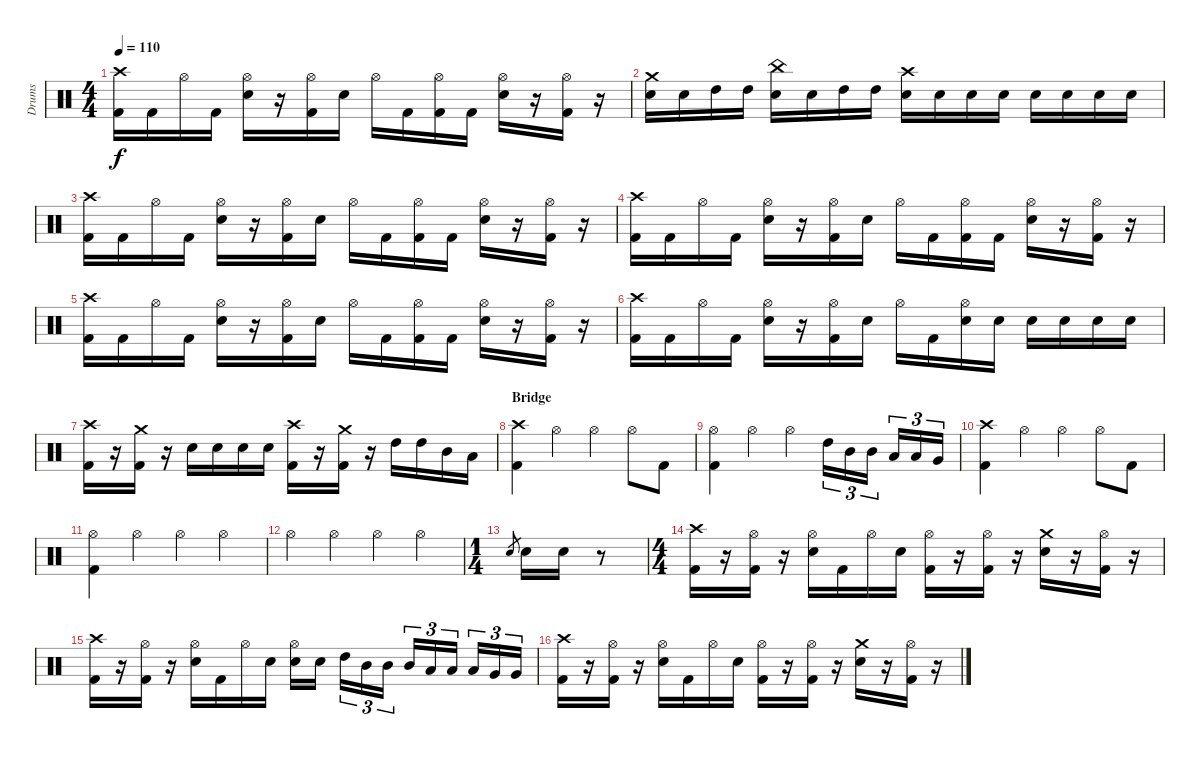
\track ("Drums" "Drums") {instrument percussion}
\staff {score}
\articulation defaults
\ts (4 4)
\tempo 110
\clef neutral
\ks c
("Crash high (hit)" "Kick (hit) 2").16{dy f} "Kick (hit) 2".16 "Hi-Hat (open)".16 "Kick (hit) 2".16 ("Hi-Hat (open)" "Electric Snare (hit)").16 r.16 ("Hi-Hat (open)" "Kick (hit) 2").16 "Electric Snare (hit)".16 "Hi-Hat (open)".16 "Kick (hit) 2".16 ("Hi-Hat (open)" "Kick (hit) 2").16 "Kick (hit) 2".16 ("Hi-Hat (open)" "Electric Snare (hit)").16 r.16 ("Hi-Hat (open)" "Kick (hit) 2").16 r.16 |
("Crash medium (hit)" "Electric Snare (hit)").16 "Electric Snare (hit)".16 "High Tom (hit)".16 "High Tom (hit)".16 ("China (hit)" "Electric Snare (hit)").16 "Electric Snare (hit)".16 "High Tom (hit)".16 "High Tom (hit)".16 ("Crash high (hit)" "Electric Snare (hit)").16 "Electric Snare (hit)".16 "Electric Snare (hit)".16 "Electric Snare (hit)".16 "Electric Snare (hit)".16 "Electric Snare (hit)".16 "Electric Snare (hit)".16 "Electric Snare (hit)".16 |
("Crash high (hit)" "Kick (hit) 2").16 "Kick (hit) 2".16 "Hi-Hat (open)".16 "Kick (hit) 2".16 ("Hi-Hat (open)" "Electric Snare (hit)").16 r.16 ("Hi-Hat (open)" "Kick (hit) 2").16 "Electric Snare (hit)".16 "Hi-Hat (open)".16 "Kick (hit) 2".16 ("Hi-Hat (open)" "Kick (hit) 2").16 "Kick (hit) 2".16 ("Hi-Hat (open)" "Electric Snare (hit)").16 r.16 ("Hi-Hat (open)" "Kick (hit) 2").16 r.16 |
("Crash high (hit)" "Kick (hit) 2").16 "Kick (hit) 2".16 "Hi-Hat (open)".16 "Kick (hit) 2".16 ("Hi-Hat (open)" "Electric Snare (hit)").16 r.16 ("Hi-Hat (open)" "Kick (hit) 2").16 "Electric Snare (hit)".16 "Hi-Hat (open)".16 "Kick (hit) 2".16 ("Hi-Hat (open)" "Kick (hit) 2").16 "Kick (hit) 2".16 ("Hi-Hat (open)" "Electric Snare (hit)").16 r.16 ("Hi-Hat (open)" "Kick (hit) 2").16 r.16 |
("Crash high (hit)" "Kick (hit) 2").16 "Kick (hit) 2".16 "Hi-Hat (open)".16 "Kick (hit) 2".16 ("Hi-Hat (open)" "Electric Snare (hit)").16 r.16 ("Hi-Hat (open)" "Kick (hit) 2").16 "Electric Snare (hit)".16 "Hi-Hat (open)".16 "Kick (hit) 2".16 ("Hi-Hat (open)" "Kick (hit) 2").16 "Kick (hit) 2".16 ("Hi-Hat (open)" "Electric Snare (hit)").16 r.16 ("Hi-Hat (open)" "Kick (hit) 2").16 r.16 |
("Crash high (hit)" "Kick (hit) 2").16 "Kick (hit) 2".16 "Hi-Hat (open)".16 "Kick (hit) 2".16 ("Hi-Hat (open)" "Electric Snare (hit)").16 r.16 ("Hi-Hat (open)" "Kick (hit) 2").16 "Electric Snare (hit)".16 "Hi-Hat (open)".16 "Kick (hit) 2".16 ("Hi-Hat (open)" "Electric Snare (hit)").16 "Electric Snare (hit)".16 "Electric Snare (hit)".16 "Electric Snare (hit)".16 "Electric Snare (hit)".16 "Electric Snare (hit)".16 |
("Crash high (hit)" "Kick (hit) 2").16 r.16 ("Crash medium (hit)" "Kick (hit) 2").16 r.16 "Electric Snare (hit)".16 "Electric Snare (hit)".16 "Electric Snare (hit)".16 "Electric Snare (hit)".16 ("Crash high (hit)" "Kick (hit) 2").16 r.16 ("Crash medium (hit)" "Kick (hit) 2").16 r.16 "High Tom (hit)".16 "High Tom (hit)".16 "Mid Tom (hit)".16 "Low Tom (hit)".16 |
\section ("" "Bridge")
("Crash high (hit)" "Kick (hit) 2").4 "Hi-Hat (open)".4 "Hi-Hat (open)".4 "Hi-Hat (open)".8 "Kick (hit) 2".8 |
("Hi-Hat (open)" "Kick (hit) 2").4 "Hi-Hat (open)".4 "Hi-Hat (open)".4 "High Tom (hit)".16{tu (3 2)} "Mid Tom (hit)".16{tu (3 2)} "Mid Tom (hit)".16{tu (3 2)} "Low Tom (hit)".16{tu (3 2)} "Low Tom (hit)".16{tu (3 2)} "Very Low Tom (hit)".16{tu (3 2)} |
("Crash high (hit)" "Kick (hit) 2").4 "Hi-Hat (open)".4 "Hi-Hat (open)".4 "Hi-Hat (open)".8 "Kick (hit) 2".8 |
("Hi-Hat (open)" "Kick (hit) 2").4 "Hi-Hat (open)".4 "Hi-Hat (open)".4 "Hi-Hat (open)".4 |
"Hi-Hat (open)".4 "Hi-Hat (open)".4 "Hi-Hat (open)".4 "Hi-Hat (open)".4 |
\ts (1 4)
"Electric Snare (hit)".8{gr} "Electric Snare (hit)".16 "Electric Snare (hit)".16 r.8 |
\ts (4 4)
("Crash high (hit)" "Kick (hit) 2").16 r.16 ("Hi-Hat (open)" "Kick (hit) 2").16 r.16 ("Hi-Hat (open)" "Electric Snare (hit)").16 "Kick (hit) 2".16 "Hi-Hat (open)".16 "Electric Snare (hit)".16 ("Hi-Hat (open)" "Kick (hit) 2").16 r.16 ("Hi-Hat (open)" "Kick (hit) 2").16 r.16 ("Crash medium (hit)" "Electric Snare (hit)").16 r.16 ("Hi-Hat (open)" "Kick (hit) 2").16 r.16 |
("Crash high (hit)" "Kick (hit) 2").16 r.16 ("Hi-Hat (open)" "Kick (hit) 2").16 r.16 ("Hi-Hat (open)" "Electric Snare (hit)").16 "Kick (hit) 2".16 "Hi-Hat (open)".16 "Electric Snare (hit)".16 ("Hi-Hat (open)" "Electric Snare (hit)").16 "Electric Snare (hit)".16 "High Tom (hit)".16{tu (3 2)} "Mid Tom (hit)".16{tu (3 2)} "Mid Tom (hit)".16{tu (3 2)} "Mid Tom (hit)".16{tu (3 2)} "Low Tom (hit)".16{tu (3 2)} "Low Tom (hit)".16{tu (3 2)} "Low Tom (hit)".16{tu (3 2)} "Very Low Tom (hit)".16{tu (3 2)} "Very Low Tom (hit)".16{tu (3 2)} |
("Crash high (hit)" "Kick (hit) 2").16 r.16 ("Hi-Hat (open)" "Kick (hit) 2").16 r.16 ("Hi-Hat (open)" "Electric Snare (hit)").16 "Kick (hit) 2".16 "Hi-Hat (open)".16 "Electric Snare (hit)".16 ("Hi-Hat (open)" "Kick (hit) 2").16 r.16 ("Hi-Hat (open)" "Kick (hit) 2").16 r.16 ("Crash medium (hit)" "Electric Snare (hit)").16 r.16 ("Hi-Hat (open)" "Kick (hit) 2").16 r.16
